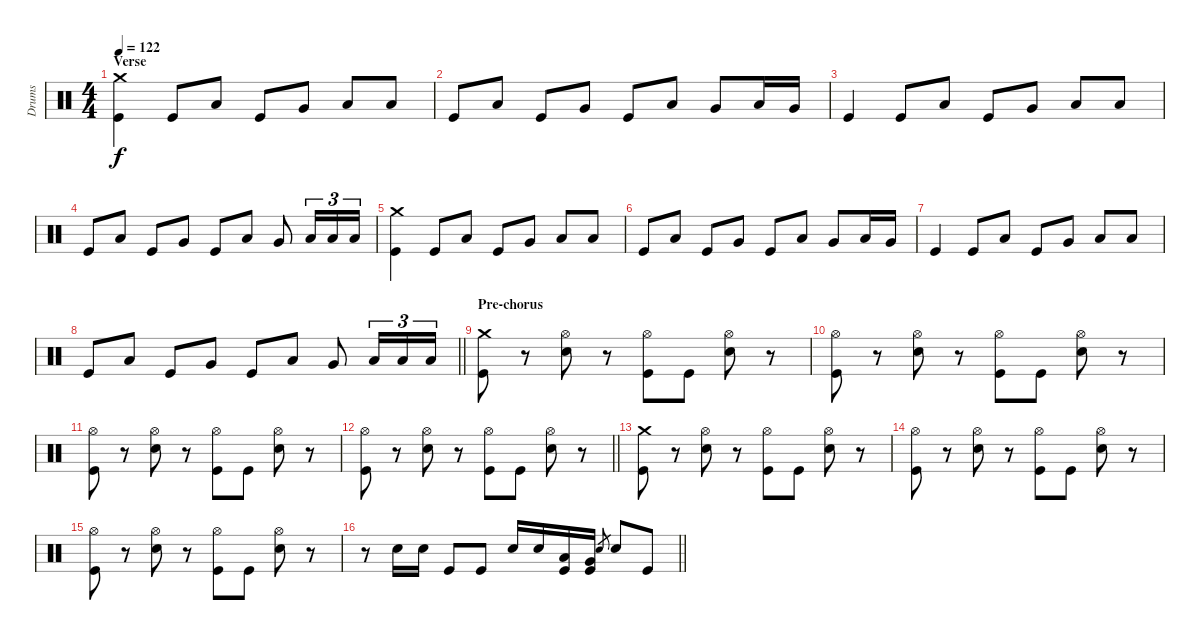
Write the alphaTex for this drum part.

\track ("Drums" "Drums") {instrument percussion}
\staff {score}
\articulation defaults
\ts (4 4)
\section ("" "Verse")
\tempo 122
\clef neutral
\ks c
("Crash medium (hit)" "Kick (hit)").4{dy f} "Kick (hit)".8 "Low Tom (hit)".8 "Kick (hit)".8 "Very Low Tom (hit)".8 "Low Floor Tom (hit)".8 "Low Tom (hit)".8 |
"Kick (hit)".8 "Low Tom (hit)".8 "Kick (hit)".8 "Very Low Tom (hit)".8 "Kick (hit)".8 "Low Floor Tom (hit)".8 "Very Low Tom (hit)".8 "Low Tom (hit)".16 "Very Low Tom (hit)".16 |
"Kick (hit)".4 "Kick (hit)".8 "Low Tom (hit)".8 "Kick (hit)".8 "Very Low Tom (hit)".8 "Low Floor Tom (hit)".8 "Low Tom (hit)".8 |
"Kick (hit)".8 "Low Tom (hit)".8 "Kick (hit)".8 "Very Low Tom (hit)".8 "Kick (hit)".8 "Low Floor Tom (hit)".8 "Very Low Tom (hit)".8 "Low Tom (hit)".16{tu (3 2)} "Low Tom (hit)".16{tu (3 2)} "Low Tom (hit)".16{tu (3 2)} |
("Crash medium (hit)" "Kick (hit)").4 "Kick (hit)".8 "Low Tom (hit)".8 "Kick (hit)".8 "Very Low Tom (hit)".8 "Low Floor Tom (hit)".8 "Low Tom (hit)".8 |
"Kick (hit)".8 "Low Tom (hit)".8 "Kick (hit)".8 "Very Low Tom (hit)".8 "Kick (hit)".8 "Low Floor Tom (hit)".8 "Very Low Tom (hit)".8 "Low Tom (hit)".16 "Very Low Tom (hit)".16 |
"Kick (hit)".4 "Kick (hit)".8 "Low Tom (hit)".8 "Kick (hit)".8 "Very Low Tom (hit)".8 "Low Floor Tom (hit)".8 "Low Tom (hit)".8 |
\barLineRight lightlight "Kick (hit)".8 "Low Tom (hit)".8 "Kick (hit)".8 "Very Low Tom (hit)".8 "Kick (hit)".8 "Low Floor Tom (hit)".8 "Very Low Tom (hit)".8 "Low Tom (hit)".16{tu (3 2)} "Low Tom (hit)".16{tu (3 2)} "Low Tom (hit)".16{tu (3 2)}
|
\section ("" "Pre-chorus")
("Crash medium (hit)" "Kick (hit)").8 r.8 ("Hi-Hat (open)" "Electric Snare (hit)").8 r.8 ("Hi-Hat (open)" "Kick (hit)").8 "Kick (hit)".8 ("Hi-Hat (open)" "Electric Snare (hit)").8 r.8 |
("Hi-Hat (open)" "Kick (hit)").8 r.8 ("Hi-Hat (open)" "Electric Snare (hit)").8 r.8 ("Hi-Hat (open)" "Kick (hit)").8 "Kick (hit)".8 ("Hi-Hat (open)" "Electric Snare (hit)").8 r.8 |
("Hi-Hat (open)" "Kick (hit)").8 r.8 ("Hi-Hat (open)" "Electric Snare (hit)").8 r.8 ("Hi-Hat (open)" "Kick (hit)").8 "Kick (hit)".8 ("Hi-Hat (open)" "Electric Snare (hit)").8 r.8 |
\barLineRight lightlight
("Hi-Hat (open)" "Kick (hit)").8 r.8 ("Hi-Hat (open)" "Electric Snare (hit)").8 r.8 ("Hi-Hat (open)" "Kick (hit)").8 "Kick (hit)".8 ("Hi-Hat (open)" "Electric Snare (hit)").8 r.8 |
("Crash medium (hit)" "Kick (hit)").8 r.8 ("Hi-Hat (open)" "Electric Snare (hit)").8 r.8 ("Hi-Hat (open)" "Kick (hit)").8 "Kick (hit)".8 ("Hi-Hat (open)" "Electric Snare (hit)").8 r.8 |
("Hi-Hat (open)" "Kick (hit)").8 r.8 ("Hi-Hat (open)" "Electric Snare (hit)").8 r.8 ("Hi-Hat (open)" "Kick (hit)").8 "Kick (hit)".8 ("Hi-Hat (open)" "Electric Snare (hit)").8 r.8 |
("Hi-Hat (open)" "Kick (hit)").8 r.8 ("Hi-Hat (open)" "Electric Snare (hit)").8 r.8 ("Hi-Hat (open)" "Kick (hit)").8 "Kick (hit)".8 ("Hi-Hat (open)" "Electric Snare (hit)").8 r.8 |
\barLineRight lightlight
r.8 "Electric Snare (hit)".16 "Electric Snare (hit)".16 "Kick (hit)".8 "Kick (hit)".8 "Electric Snare (hit)".16 "Electric Snare (hit)".16 ("Low Tom (hit)" "Kick (hit)").16 ("Very Low Tom (hit)" "Kick (hit)").16 "Electric Snare (hit)".8{gr} "Electric Snare (hit)".8 "Kick (hit)".8
